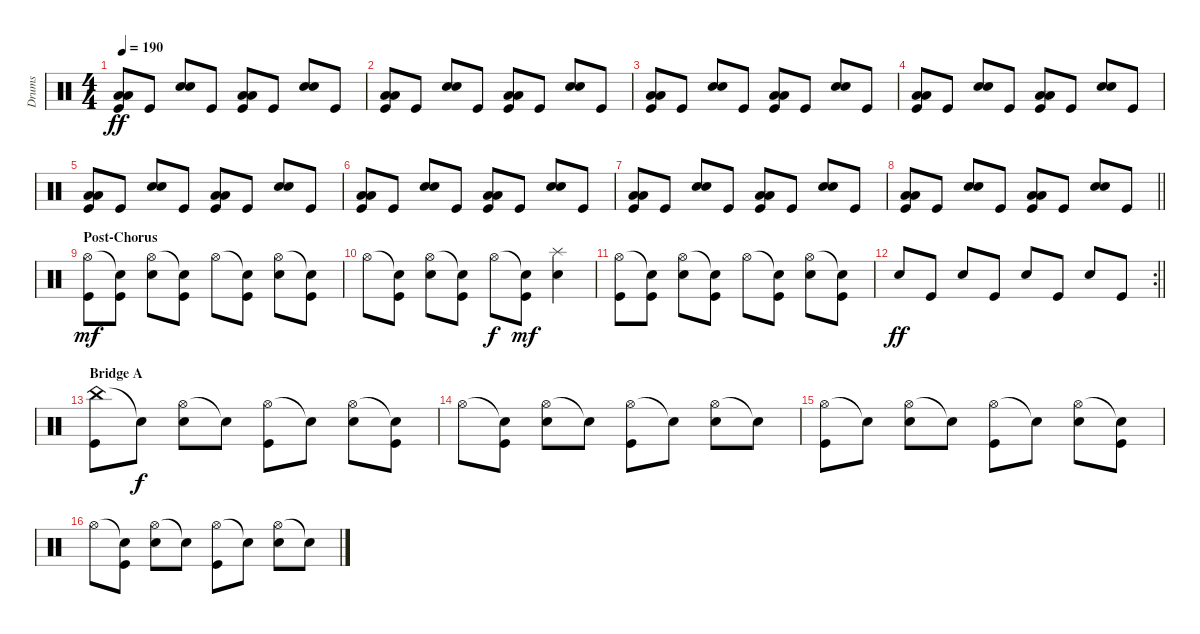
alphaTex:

\track ("Drums" "Drums") {instrument percussion}
\staff {score}
\articulation defaults
\ts (4 4)
\tempo 190
\clef neutral
\ks c
("Low Tom (hit)" "Low Floor Tom (hit)" "Kick (hit)").8{dy ff} "Kick (hit)".8 ("Snare (hit) 2" "Electric Snare (hit)").8 "Kick (hit)".8 ("Low Tom (hit)" "Low Floor Tom (hit)" "Kick (hit)").8 "Kick (hit)".8 ("Snare (hit) 2" "Electric Snare (hit)").8 "Kick (hit)".8 |
("Low Tom (hit)" "Low Floor Tom (hit)" "Kick (hit)").8 "Kick (hit)".8 ("Snare (hit) 2" "Electric Snare (hit)").8 "Kick (hit)".8 ("Low Tom (hit)" "Low Floor Tom (hit)" "Kick (hit)").8 "Kick (hit)".8 ("Snare (hit) 2" "Electric Snare (hit)").8 "Kick (hit)".8 |
("Low Tom (hit)" "Low Floor Tom (hit)" "Kick (hit)").8 "Kick (hit)".8 ("Snare (hit) 2" "Electric Snare (hit)").8 "Kick (hit)".8 ("Low Tom (hit)" "Low Floor Tom (hit)" "Kick (hit)").8 "Kick (hit)".8 ("Snare (hit) 2" "Electric Snare (hit)").8 "Kick (hit)".8 |
("Low Tom (hit)" "Low Floor Tom (hit)" "Kick (hit)").8 "Kick (hit)".8 ("Snare (hit) 2" "Electric Snare (hit)").8 "Kick (hit)".8 ("Low Tom (hit)" "Low Floor Tom (hit)" "Kick (hit)").8 "Kick (hit)".8 ("Snare (hit) 2" "Electric Snare (hit)").8 "Kick (hit)".8 |
("Low Tom (hit)" "Low Floor Tom (hit)" "Kick (hit)").8 "Kick (hit)".8 ("Snare (hit) 2" "Electric Snare (hit)").8 "Kick (hit)".8 ("Low Tom (hit)" "Low Floor Tom (hit)" "Kick (hit)").8 "Kick (hit)".8 ("Snare (hit) 2" "Electric Snare (hit)").8 "Kick (hit)".8 |
("Low Tom (hit)" "Low Floor Tom (hit)" "Kick (hit)").8 "Kick (hit)".8 ("Snare (hit) 2" "Electric Snare (hit)").8 "Kick (hit)".8 ("Low Tom (hit)" "Low Floor Tom (hit)" "Kick (hit)").8 "Kick (hit)".8 ("Snare (hit) 2" "Electric Snare (hit)").8 "Kick (hit)".8 |
("Low Tom (hit)" "Low Floor Tom (hit)" "Kick (hit)").8 "Kick (hit)".8 ("Snare (hit) 2" "Electric Snare (hit)").8 "Kick (hit)".8 ("Low Tom (hit)" "Low Floor Tom (hit)" "Kick (hit)").8 "Kick (hit)".8 ("Snare (hit) 2" "Electric Snare (hit)").8 "Kick (hit)".8 |
\barLineRight lightlight
("Low Tom (hit)" "Low Floor Tom (hit)" "Kick (hit)").8 "Kick (hit)".8 ("Snare (hit) 2" "Electric Snare (hit)").8 "Kick (hit)".8 ("Low Tom (hit)" "Low Floor Tom (hit)" "Kick (hit)").8 "Kick (hit)".8 ("Snare (hit) 2" "Electric Snare (hit)").8 "Kick (hit)".8 |
\section ("" "Post-Chorus")
("Hi-Hat (open)" "Kick (hit)").8{dy mf} ("Snare (hit)"{t} "Kick (hit)").8 ("Hi-Hat (open)" "Snare (hit) 2").8 ("Snare (hit)"{t} "Kick (hit)").8 "Hi-Hat (open)".8 ("Snare (hit)"{t} "Kick (hit)").8 ("Hi-Hat (open)" "Snare (hit) 2").8 ("Snare (hit)"{t} "Kick (hit)").8 |
"Hi-Hat (open)".8 ("Snare (hit)"{t} "Kick (hit)").8 ("Hi-Hat (open)" "Snare (hit) 2").8 ("Snare (hit)"{t} "Kick (hit)").8 "Hi-Hat (open)".8{dy f} ("Snare (hit)"{t} "Kick (hit)").8{dy mf} ("Splash (hit)" "Snare (hit) 2").4 |
("Hi-Hat (open)" "Kick (hit)").8 ("Snare (hit)"{t} "Kick (hit)").8 ("Hi-Hat (open)" "Snare (hit) 2").8 ("Snare (hit)"{t} "Kick (hit)").8 "Hi-Hat (open)".8 ("Snare (hit)"{t} "Kick (hit)").8 ("Hi-Hat (open)" "Snare (hit) 2").8 ("Snare (hit)"{t} "Kick (hit)").8 |
\rc 2
\barLineRight lightlight "Snare (hit) 2".8{dy ff} "Kick (hit)".8 "Snare (hit) 2".8 "Kick (hit)".8 "Snare (hit) 2".8 "Kick (hit)".8 "Snare (hit) 2".8 "Kick (hit)".8
|
\section ("" "Bridge A")
("China (hit)" "Kick (hit)").8 "Snare (hit)"{t}.8{dy f} ("Hi-Hat (open)" "Snare (hit) 2").8 "Snare (hit)"{t}.8 ("Hi-Hat (open)" "Kick (hit)").8 "Snare (hit)"{t}.8 ("Hi-Hat (open)" "Snare (hit) 2").8 ("Snare (hit)"{t} "Kick (hit)").8 |
"Hi-Hat (open)".8 ("Snare (hit)"{t} "Kick (hit)").8 ("Hi-Hat (open)" "Snare (hit) 2").8 "Snare (hit)"{t}.8 ("Hi-Hat (open)" "Kick (hit)").8 "Snare (hit)"{t}.8 ("Hi-Hat (open)" "Snare (hit) 2").8 "Snare (hit)"{t}.8 |
("Hi-Hat (open)" "Kick (hit)").8 "Snare (hit)"{t}.8 ("Hi-Hat (open)" "Snare (hit) 2").8 "Snare (hit)"{t}.8 ("Hi-Hat (open)" "Kick (hit)").8 "Snare (hit)"{t}.8 ("Hi-Hat (open)" "Snare (hit) 2").8 ("Snare (hit)"{t} "Kick (hit)").8 |
"Hi-Hat (open)".8 ("Snare (hit)"{t} "Kick (hit)").8 ("Hi-Hat (open)" "Snare (hit) 2").8 "Snare (hit)"{t}.8 ("Hi-Hat (open)" "Kick (hit)").8 "Snare (hit)"{t}.8 ("Hi-Hat (open)" "Snare (hit) 2").8 "Snare (hit)"{t}.8
